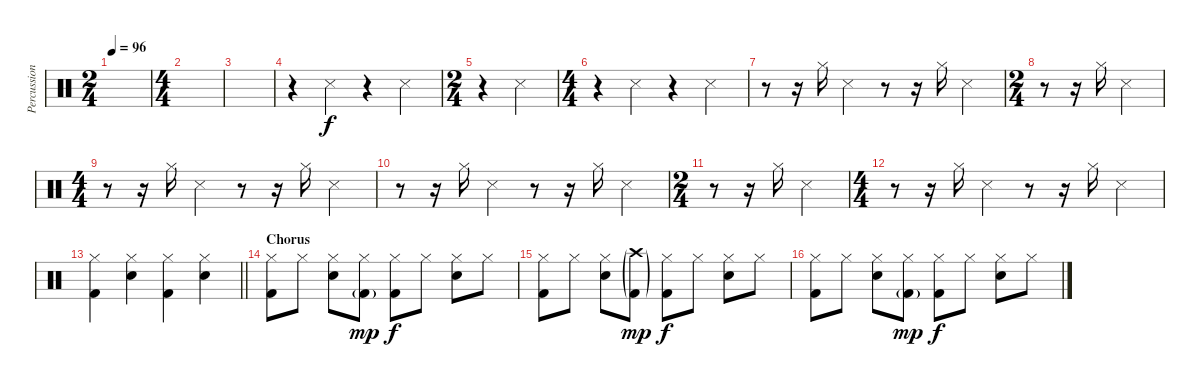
\track ("Percussion" "Percussion") {instrument percussion}
\staff {score}
\articulation defaults
\ts (2 4)
\tempo 96
\clef neutral
\ks c
|
\ts (4 4)
|
|
r.4 "Snare (side stick) 3".4 r.4 "Snare (side stick) 3".4 |
\ts (2 4)
r.4 "Snare (side stick) 3".4 |
\ts (4 4)
r.4 "Snare (side stick) 3".4 r.4 "Snare (side stick) 3".4 |
r.8 r.16 "Hi-Hat (closed)".16 "Snare (side stick) 3".4 r.8 r.16 "Hi-Hat (closed)".16 "Snare (side stick) 3".4 |
\ts (2 4)
r.8 r.16 "Hi-Hat (closed)".16 "Snare (side stick) 3".4 |
\ts (4 4)
r.8 r.16 "Hi-Hat (closed)".16 "Snare (side stick) 3".4 r.8 r.16 "Hi-Hat (closed)".16 "Snare (side stick) 3".4 |
r.8 r.16 "Hi-Hat (closed)".16 "Snare (side stick) 3".4 r.8 r.16 "Hi-Hat (closed)".16 "Snare (side stick) 3".4 |
\ts (2 4)
r.8 r.16 "Hi-Hat (closed)".16 "Snare (side stick) 3".4 |
\ts (4 4)
r.8 r.16 "Hi-Hat (closed)".16 "Snare (side stick) 3".4 r.8 r.16 "Hi-Hat (closed)".16 "Snare (side stick) 3".4 |
\barLineRight lightlight
("Hi-Hat (closed)" "Kick (hit) 2").4 ("Hi-Hat (closed)" "Snare (hit) 2").4 ("Hi-Hat (closed)" "Kick (hit) 2").4 ("Hi-Hat (closed)" "Snare (hit) 2").4 |
\section ("" "Chorus")
("Hi-Hat (closed)" "Kick (hit) 2").8 "Hi-Hat (closed)".8 ("Hi-Hat (closed)" "Snare (hit) 2").8 ("Hi-Hat (closed)" "Kick (hit) 2"{g}).8{dy mp} ("Hi-Hat (closed)" "Kick (hit) 2").8{dy f} "Hi-Hat (closed)".8 ("Hi-Hat (closed)" "Snare (hit) 2").8 "Hi-Hat (closed)".8 |
("Hi-Hat (closed)" "Kick (hit) 2").8 "Hi-Hat (closed)".8 ("Hi-Hat (closed)" "Snare (hit) 2").8 ("Crash high (hit)"{g} "Kick (hit) 2"{g}).8{dy mp} ("Hi-Hat (closed)" "Kick (hit) 2").8{dy f} "Hi-Hat (closed)".8 ("Hi-Hat (closed)" "Snare (hit) 2").8 "Hi-Hat (closed)".8 |
("Hi-Hat (closed)" "Kick (hit) 2").8 "Hi-Hat (closed)".8 ("Hi-Hat (closed)" "Snare (hit) 2").8 ("Hi-Hat (closed)" "Kick (hit) 2"{g}).8{dy mp} ("Hi-Hat (closed)" "Kick (hit) 2").8{dy f} "Hi-Hat (closed)".8 ("Hi-Hat (closed)" "Snare (hit) 2").8 "Hi-Hat (closed)".8
